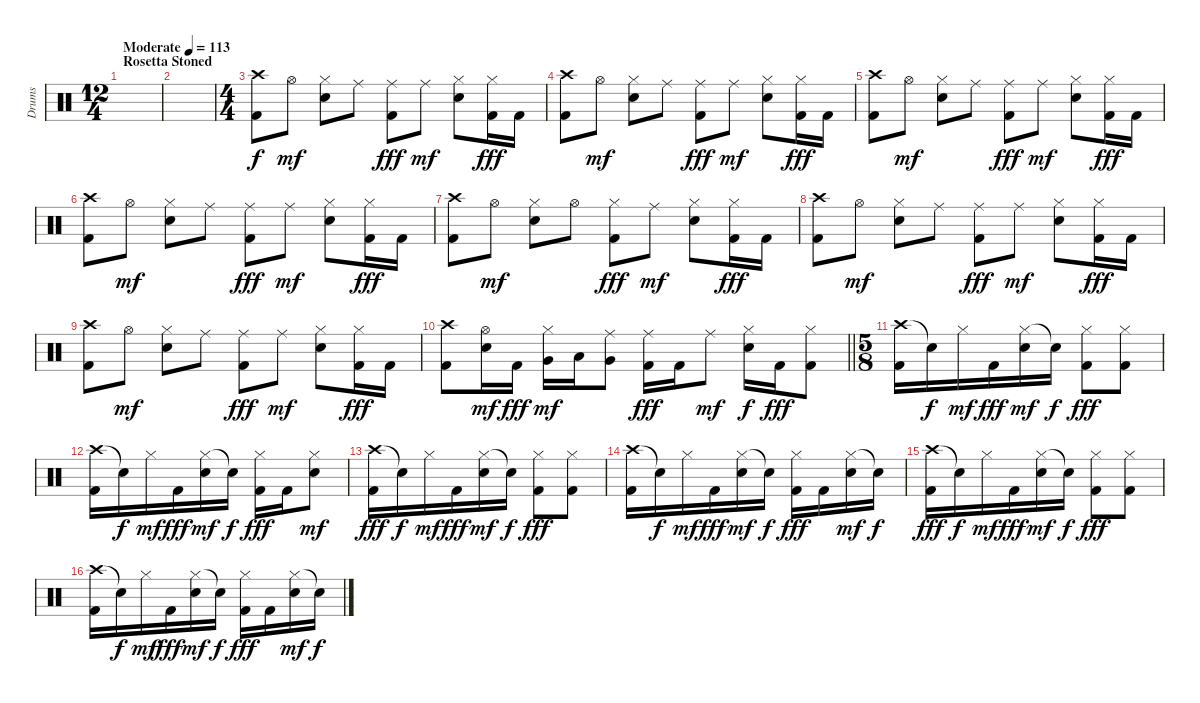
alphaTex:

\track ("Drums" "Drums") {instrument percussion}
\staff {score}
\articulation defaults
\ts (12 4)
\section ("" "Rosetta Stoned")
\tempo (113 "Moderate")
\clef neutral
\ks c
|
|
\ts (4 4)
("Crash high (hit)" "Kick (hit) 2").8 "Hi-Hat (open)".8{dy mf} ("Hi-Hat (closed)" "Snare (hit) 2").8 "Ride (middle)".8 ("Ride (middle)" "Kick (hit) 2").8{dy fff} "Ride (middle)".8{dy mf} ("Hi-Hat (closed)" "Snare (hit) 2").8 ("Hi-Hat (closed)" "Kick (hit) 2").16{dy fff} "Kick (hit) 2".16 |
("Crash high (hit)" "Kick (hit) 2").8 "Hi-Hat (open)".8{dy mf} ("Hi-Hat (closed)" "Snare (hit) 2").8 "Ride (middle)".8 ("Ride (middle)" "Kick (hit) 2").8{dy fff} "Ride (middle)".8{dy mf} ("Hi-Hat (closed)" "Snare (hit) 2").8 ("Hi-Hat (closed)" "Kick (hit) 2").16{dy fff} "Kick (hit) 2".16 |
("Crash high (hit)" "Kick (hit) 2").8 "Hi-Hat (open)".8{dy mf} ("Hi-Hat (closed)" "Snare (hit) 2").8 "Ride (middle)".8 ("Ride (middle)" "Kick (hit) 2").8{dy fff} "Ride (middle)".8{dy mf} ("Hi-Hat (closed)" "Snare (hit) 2").8 ("Hi-Hat (closed)" "Kick (hit) 2").16{dy fff} "Kick (hit) 2".16 |
("Crash high (hit)" "Kick (hit) 2").8 "Hi-Hat (open)".8{dy mf} ("Hi-Hat (closed)" "Snare (hit) 2").8 "Ride (middle)".8 ("Ride (middle)" "Kick (hit) 2").8{dy fff} "Ride (middle)".8{dy mf} ("Hi-Hat (closed)" "Snare (hit) 2").8 ("Hi-Hat (closed)" "Kick (hit) 2").16{dy fff} "Kick (hit) 2".16 |
("Crash high (hit)" "Kick (hit) 2").8 "Hi-Hat (open)".8{dy mf} ("Hi-Hat (closed)" "Snare (hit) 2").8 "Hi-Hat (open)".8 ("Hi-Hat (closed)" "Kick (hit) 2").8{dy fff} "Ride (middle)".8{dy mf} ("Hi-Hat (closed)" "Snare (hit) 2").8 ("Hi-Hat (closed)" "Kick (hit) 2").16{dy fff} "Kick (hit) 2".16 |
("Crash high (hit)" "Kick (hit) 2").8 "Hi-Hat (open)".8{dy mf} ("Hi-Hat (closed)" "Snare (hit) 2").8 "Ride (middle)".8 ("Ride (middle)" "Kick (hit) 2").8{dy fff} "Ride (middle)".8{dy mf} ("Hi-Hat (closed)" "Snare (hit) 2").8 ("Hi-Hat (closed)" "Kick (hit) 2").16{dy fff} "Kick (hit) 2".16 |
("Crash high (hit)" "Kick (hit) 2").8 "Hi-Hat (open)".8{dy mf} ("Hi-Hat (closed)" "Snare (hit) 2").8 "Ride (middle)".8 ("Ride (middle)" "Kick (hit) 2").8{dy fff} "Ride (middle)".8{dy mf} ("Hi-Hat (closed)" "Snare (hit) 2").8 ("Hi-Hat (closed)" "Kick (hit) 2").16{dy fff} "Kick (hit) 2".16 |
\barLineRight lightlight
("Crash high (hit)" "Kick (hit) 2").8 ("Hi-Hat (open)" "Snare (hit) 2").16{dy mf} "Kick (hit) 2".16{dy fff} ("Hi-Hat (closed)" "Very Low Tom (hit)").16{dy mf} "Low Floor Tom (hit)".16 ("Ride (middle)" "Very Low Tom (hit)").8 ("Ride (middle)" "Kick (hit) 2").16{dy fff} "Kick (hit) 2".16 "Ride (middle)".8{dy mf} ("Hi-Hat (closed)" "Snare (hit) 2").16{dy f} "Kick (hit) 2".16{dy fff} ("Hi-Hat (closed)" "Kick (hit) 2").8 |
\ts (5 8)
\section ("" "")
("Crash high (hit)" "Kick (hit) 2").16 "Snare (hit)"{t}.16{dy f} "Hi-Hat (closed)".16{dy mf} "Kick (hit) 2".16{dy fff} ("Hi-Hat (closed)" "Snare (hit) 2").16{dy mf} "Snare (hit)"{t}.16{dy f} ("Hi-Hat (closed)" "Kick (hit) 2").8{dy fff} ("Hi-Hat (closed)" "Kick (hit) 2").8 |
("Crash high (hit)" "Kick (hit) 2").16 "Snare (hit)"{t}.16{dy f} "Hi-Hat (closed)".16{dy mf} "Kick (hit) 2".16{dy fff} ("Hi-Hat (closed)" "Snare (hit) 2").16{dy mf} "Snare (hit)"{t}.16{dy f} ("Hi-Hat (closed)" "Kick (hit) 2").16{dy fff} "Kick (hit) 2".16 ("Hi-Hat (closed)" "Snare (hit) 2").8{dy mf} |
("Crash high (hit)" "Kick (hit) 2").16{dy fff} "Snare (hit)"{t}.16{dy f} "Hi-Hat (closed)".16{dy mf} "Kick (hit) 2".16{dy fff} ("Hi-Hat (closed)" "Snare (hit) 2").16{dy mf} "Snare (hit)"{t}.16{dy f} ("Hi-Hat (closed)" "Kick (hit) 2").8{dy fff} ("Hi-Hat (closed)" "Kick (hit) 2").8 |
("Crash high (hit)" "Kick (hit) 2").16 "Snare (hit)"{t}.16{dy f} "Hi-Hat (closed)".16{dy mf} "Kick (hit) 2".16{dy fff} ("Hi-Hat (closed)" "Snare (hit) 2").16{dy mf} "Snare (hit)"{t}.16{dy f} ("Hi-Hat (closed)" "Kick (hit) 2").16{dy fff} "Kick (hit) 2".16 ("Hi-Hat (closed)" "Snare (hit) 2").16{dy mf} "Snare (hit)"{t}.16{dy f} |
("Crash high (hit)" "Kick (hit) 2").16{dy fff} "Snare (hit)"{t}.16{dy f} "Hi-Hat (closed)".16{dy mf} "Kick (hit) 2".16{dy fff} ("Hi-Hat (closed)" "Snare (hit) 2").16{dy mf} "Snare (hit)"{t}.16{dy f} ("Hi-Hat (closed)" "Kick (hit) 2").8{dy fff} ("Hi-Hat (closed)" "Kick (hit) 2").8 |
("Crash high (hit)" "Kick (hit) 2").16 "Snare (hit)"{t}.16{dy f} "Hi-Hat (closed)".16{dy mf} "Kick (hit) 2".16{dy fff} ("Hi-Hat (closed)" "Snare (hit) 2").16{dy mf} "Snare (hit)"{t}.16{dy f} ("Hi-Hat (closed)" "Kick (hit) 2").16{dy fff} "Kick (hit) 2".16 ("Hi-Hat (closed)" "Snare (hit) 2").16{dy mf} "Snare (hit)"{t}.16{dy f}
